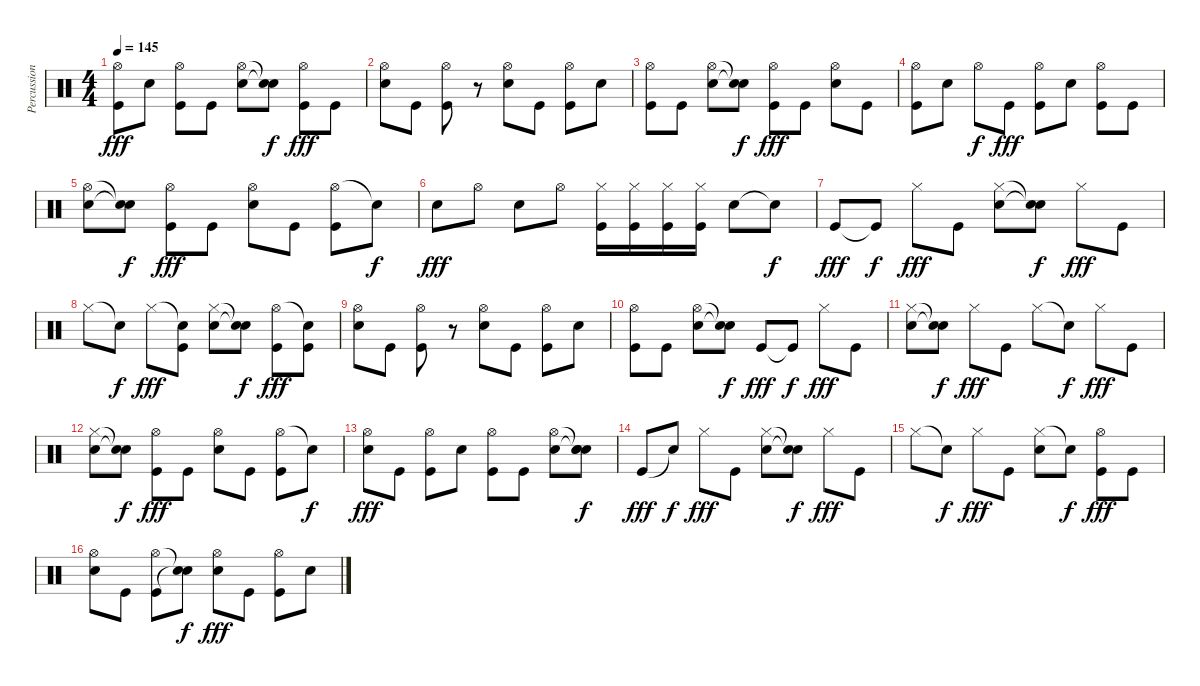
\track ("Percussions" "Percussion") {instrument percussion}
\staff {score}
\articulation defaults
\ts (4 4)
\tempo 145
\clef neutral
\ks c
("Hi-Hat (open)" "Kick (hit)").8{dy fff} "Electric Snare (hit)".8 ("Hi-Hat (open)" "Kick (hit)").8 "Kick (hit)".8 ("Hi-Hat (open)" "Electric Snare (hit)").8 ("Snare (hit)"{t} "Snare (hit)"{t}).8{dy f} ("Hi-Hat (open)" "Kick (hit)").8{dy fff} "Kick (hit)".8 |
("Hi-Hat (open)" "Electric Snare (hit)").8 "Kick (hit)".8 ("Hi-Hat (open)" "Kick (hit)").8 r.8 ("Hi-Hat (open)" "Electric Snare (hit)").8 "Kick (hit)".8 ("Hi-Hat (open)" "Kick (hit)").8 "Electric Snare (hit)".8 |
("Hi-Hat (open)" "Kick (hit)").8 "Kick (hit)".8 ("Hi-Hat (open)" "Electric Snare (hit)").8 ("Snare (hit)"{t} "Snare (hit)"{t}).8{dy f} ("Hi-Hat (open)" "Kick (hit)").8{dy fff} "Kick (hit)".8 ("Hi-Hat (open)" "Electric Snare (hit)").8 "Kick (hit)".8 |
("Hi-Hat (open)" "Kick (hit)").8 "Electric Snare (hit)".8 "Hi-Hat (open)".8{dy f} "Kick (hit)".8{dy fff} ("Hi-Hat (open)" "Kick (hit)").8 "Electric Snare (hit)".8 ("Hi-Hat (open)" "Kick (hit)").8 "Kick (hit)".8 |
("Hi-Hat (open)" "Electric Snare (hit)").8 ("Snare (hit)"{t} "Snare (hit)"{t}).8{dy f} ("Hi-Hat (open)" "Kick (hit)").8{dy fff} "Kick (hit)".8 ("Hi-Hat (open)" "Electric Snare (hit)").8 "Kick (hit)".8 ("Hi-Hat (open)" "Kick (hit)").8 "Snare (hit)"{t}.8{dy f} |
"Electric Snare (hit)".8{dy fff} "Hi-Hat (open)".8 "Electric Snare (hit)".8 "Hi-Hat (open)".8 ("Hi-Hat (closed)" "Kick (hit)").16{volume 11} ("Hi-Hat (closed)" "Kick (hit)").16 ("Hi-Hat (closed)" "Kick (hit)").16 ("Hi-Hat (closed)" "Kick (hit)").16 "Electric Snare (hit)".8{volume 16} "Snare (hit)"{t}.8{dy f} |
"Kick (hit)".8{dy fff} "Kick (hit)"{t}.8{dy f} "Hi-Hat (closed)".8{dy fff} "Kick (hit)".8 ("Hi-Hat (closed)" "Electric Snare (hit)").8 ("Snare (hit)"{t} "Snare (hit)"{t}).8{dy f} "Hi-Hat (closed)".8{dy fff} "Kick (hit)".8 |
"Hi-Hat (closed)".8 "Snare (hit)"{t}.8{dy f} "Hi-Hat (closed)".8{dy fff} ("Snare (hit)"{t} "Kick (hit)").8 ("Hi-Hat (closed)" "Electric Snare (hit)").8 ("Snare (hit)"{t} "Snare (hit)"{t}).8{dy f} ("Hi-Hat (open)" "Kick (hit)").8{dy fff} ("Snare (hit)"{t} "Kick (hit)").8 |
("Hi-Hat (open)" "Electric Snare (hit)").8 "Kick (hit)".8 ("Hi-Hat (open)" "Kick (hit)").8 r.8 ("Hi-Hat (open)" "Electric Snare (hit)").8 "Kick (hit)".8 ("Hi-Hat (open)" "Kick (hit)").8 "Electric Snare (hit)".8 |
("Hi-Hat (open)" "Kick (hit)").8 "Kick (hit)".8 ("Hi-Hat (open)" "Electric Snare (hit)").8 ("Snare (hit)"{t} "Snare (hit)"{t}).8{dy f} "Kick (hit)".8{dy fff} "Kick (hit)"{t}.8{dy f} "Hi-Hat (closed)".8{dy fff} "Kick (hit)".8 |
("Hi-Hat (closed)" "Electric Snare (hit)").8 ("Snare (hit)"{t} "Snare (hit)"{t}).8{dy f} "Hi-Hat (closed)".8{dy fff} "Kick (hit)".8 "Hi-Hat (closed)".8 "Snare (hit)"{t}.8{dy f} "Hi-Hat (closed)".8{dy fff} "Kick (hit)".8 |
("Hi-Hat (closed)" "Electric Snare (hit)").8 ("Snare (hit)"{t} "Snare (hit)"{t}).8{dy f} ("Hi-Hat (open)" "Kick (hit)").8{dy fff} "Kick (hit)".8 ("Hi-Hat (open)" "Electric Snare (hit)").8 "Kick (hit)".8 ("Hi-Hat (open)" "Kick (hit)").8 "Snare (hit)"{t}.8{dy f} |
("Hi-Hat (open)" "Electric Snare (hit)").8{dy fff} "Kick (hit)".8 ("Hi-Hat (open)" "Kick (hit)").8 "Electric Snare (hit)".8 ("Hi-Hat (open)" "Kick (hit)").8 "Kick (hit)".8 ("Hi-Hat (open)" "Electric Snare (hit)").8 ("Snare (hit)"{t} "Snare (hit)"{t} "Snare (hit)").8{dy f} |
"Kick (hit)".8{dy fff} "Snare (hit)"{t}.8{dy f} "Hi-Hat (closed)".8{dy fff} "Kick (hit)".8 ("Hi-Hat (closed)" "Electric Snare (hit)").8 ("Snare (hit)"{t} "Snare (hit)"{t}).8{dy f} "Hi-Hat (closed)".8{dy fff} "Kick (hit)".8 |
"Hi-Hat (closed)".8 "Snare (hit)"{t}.8{dy f} "Hi-Hat (closed)".8{dy fff} "Kick (hit)".8 ("Hi-Hat (closed)" "Electric Snare (hit)").8 "Snare (hit)"{t}.8{dy f} ("Hi-Hat (open)" "Kick (hit)").8{dy fff} "Kick (hit)".8 |
("Hi-Hat (open)" "Electric Snare (hit)").8 "Kick (hit)".8 ("Hi-Hat (open)" "Kick (hit)").8 ("Snare (hit)"{t} "Snare (hit)"{t}).8{dy f} ("Hi-Hat (open)" "Electric Snare (hit)").8{dy fff} "Kick (hit)".8 ("Hi-Hat (open)" "Kick (hit)").8 "Electric Snare (hit)".8
